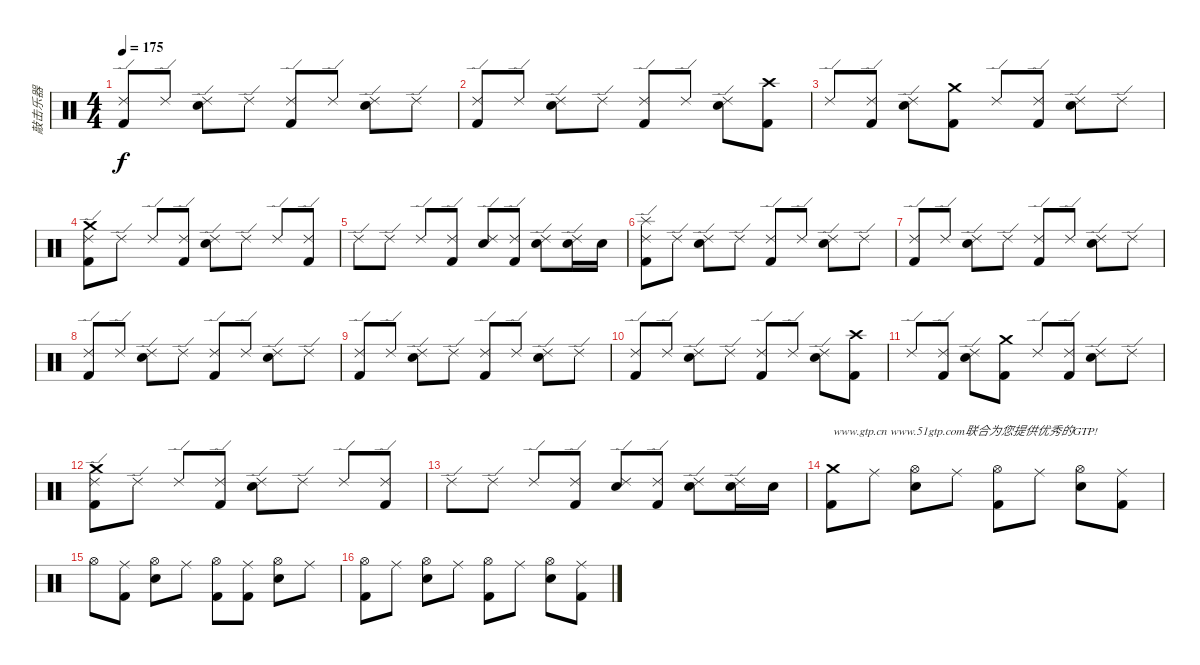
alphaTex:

\track ("敲击乐器" "敲击乐器") {instrument percussion}
\staff {score}
\articulation defaults
\ts (4 4)
\tempo 175
\clef neutral
\ks c
("Kick (hit) 2" "Ride (edge) 2").8{dy f} "Ride (edge) 2".8 ("Electric Snare (hit)" "Ride (edge) 2").8 "Ride (edge) 2".8 ("Kick (hit) 2" "Ride (edge) 2").8 "Ride (edge) 2".8 ("Electric Snare (hit)" "Ride (edge) 2").8 "Ride (edge) 2".8 |
("Kick (hit) 2" "Ride (edge) 2").8 "Ride (edge) 2".8 ("Electric Snare (hit)" "Ride (edge) 2").8 "Ride (edge) 2".8 ("Kick (hit) 2" "Ride (edge) 2").8 "Ride (edge) 2".8 ("Electric Snare (hit)" "Ride (edge) 2").8 ("Kick (hit) 2" "Crash high (hit)").8 |
"Ride (edge) 2".8 ("Kick (hit) 2" "Ride (edge) 2").8 ("Electric Snare (hit)" "Ride (edge) 2").8 ("Kick (hit) 2" "Crash medium (hit)").8 "Ride (edge) 2".8 ("Kick (hit) 2" "Ride (edge) 2").8 ("Electric Snare (hit)" "Ride (edge) 2").8 "Ride (edge) 2".8 |
("Kick (hit) 2" "Ride (edge) 2" "Crash medium (hit)").8 "Ride (edge) 2".8 "Ride (edge) 2".8 ("Kick (hit) 2" "Ride (edge) 2").8 ("Electric Snare (hit)" "Ride (edge) 2").8 "Ride (edge) 2".8 "Ride (edge) 2".8 ("Kick (hit) 2" "Ride (edge) 2").8 |
"Ride (edge) 2".8 "Ride (edge) 2".8 "Ride (edge) 2".8 ("Kick (hit) 2" "Ride (edge) 2").8 ("Electric Snare (hit)" "Ride (edge) 2").8 ("Kick (hit) 2" "Ride (edge) 2").8 ("Electric Snare (hit)" "Ride (edge) 2").8 ("Electric Snare (hit)" "Ride (edge) 2").16 "Electric Snare (hit)".16 |
("Kick (hit) 2" "Ride (edge) 2" "Splash (hit)").8 "Ride (edge) 2".8 ("Electric Snare (hit)" "Ride (edge) 2").8 "Ride (edge) 2".8 ("Kick (hit) 2" "Ride (edge) 2").8 "Ride (edge) 2".8 ("Electric Snare (hit)" "Ride (edge) 2").8 "Ride (edge) 2".8 |
("Kick (hit) 2" "Ride (edge) 2").8 "Ride (edge) 2".8 ("Electric Snare (hit)" "Ride (edge) 2").8 "Ride (edge) 2".8 ("Kick (hit) 2" "Ride (edge) 2").8 "Ride (edge) 2".8 ("Electric Snare (hit)" "Ride (edge) 2").8 "Ride (edge) 2".8 |
("Kick (hit) 2" "Ride (edge) 2").8 "Ride (edge) 2".8 ("Electric Snare (hit)" "Ride (edge) 2").8 "Ride (edge) 2".8 ("Kick (hit) 2" "Ride (edge) 2").8 "Ride (edge) 2".8 ("Electric Snare (hit)" "Ride (edge) 2").8 "Ride (edge) 2".8 |
("Kick (hit) 2" "Ride (edge) 2").8 "Ride (edge) 2".8 ("Electric Snare (hit)" "Ride (edge) 2").8 "Ride (edge) 2".8 ("Kick (hit) 2" "Ride (edge) 2").8 "Ride (edge) 2".8 ("Electric Snare (hit)" "Ride (edge) 2").8 "Ride (edge) 2".8 |
("Kick (hit) 2" "Ride (edge) 2").8 "Ride (edge) 2".8 ("Electric Snare (hit)" "Ride (edge) 2").8 "Ride (edge) 2".8 ("Kick (hit) 2" "Ride (edge) 2").8 "Ride (edge) 2".8 ("Electric Snare (hit)" "Ride (edge) 2").8 ("Kick (hit) 2" "Crash high (hit)").8 |
"Ride (edge) 2".8 ("Kick (hit) 2" "Ride (edge) 2").8 ("Electric Snare (hit)" "Ride (edge) 2").8 ("Kick (hit) 2" "Crash medium (hit)").8 "Ride (edge) 2".8 ("Kick (hit) 2" "Ride (edge) 2").8 ("Electric Snare (hit)" "Ride (edge) 2").8 "Ride (edge) 2".8 |
("Kick (hit) 2" "Ride (edge) 2" "Crash medium (hit)").8 "Ride (edge) 2".8 "Ride (edge) 2".8 ("Kick (hit) 2" "Ride (edge) 2").8 ("Electric Snare (hit)" "Ride (edge) 2").8 "Ride (edge) 2".8 "Ride (edge) 2".8 ("Kick (hit) 2" "Ride (edge) 2").8 |
"Ride (edge) 2".8 "Ride (edge) 2".8 "Ride (edge) 2".8 ("Kick (hit) 2" "Ride (edge) 2").8 ("Electric Snare (hit)" "Ride (edge) 2").8 ("Kick (hit) 2" "Ride (edge) 2").8 ("Electric Snare (hit)" "Ride (edge) 2").8 ("Electric Snare (hit)" "Ride (edge) 2").16 "Electric Snare (hit)".16 |
("Kick (hit) 2" "Crash medium (hit)").8{txt "www.gtp.cn www.51gtp.com联合为您提供优秀的GTP!"} "Ride (middle)".8 ("Electric Snare (hit)" "Hi-Hat (open)").8 "Ride (middle)".8 ("Kick (hit) 2" "Hi-Hat (open)").8 "Ride (middle)".8 ("Electric Snare (hit)" "Hi-Hat (open)").8 ("Kick (hit) 2" "Ride (middle)").8 |
"Hi-Hat (open)".8 ("Kick (hit) 2" "Ride (middle)").8 ("Electric Snare (hit)" "Hi-Hat (open)").8 "Ride (middle)".8 ("Kick (hit) 2" "Hi-Hat (open)").8 ("Kick (hit) 2" "Ride (middle)").8 ("Electric Snare (hit)" "Hi-Hat (open)").8 "Ride (middle)".8 |
("Kick (hit) 2" "Hi-Hat (open)").8 "Ride (middle)".8 ("Electric Snare (hit)" "Hi-Hat (open)").8 "Ride (middle)".8 ("Kick (hit) 2" "Hi-Hat (open)").8 "Ride (middle)".8 ("Electric Snare (hit)" "Hi-Hat (open)").8 ("Kick (hit) 2" "Ride (middle)").8
